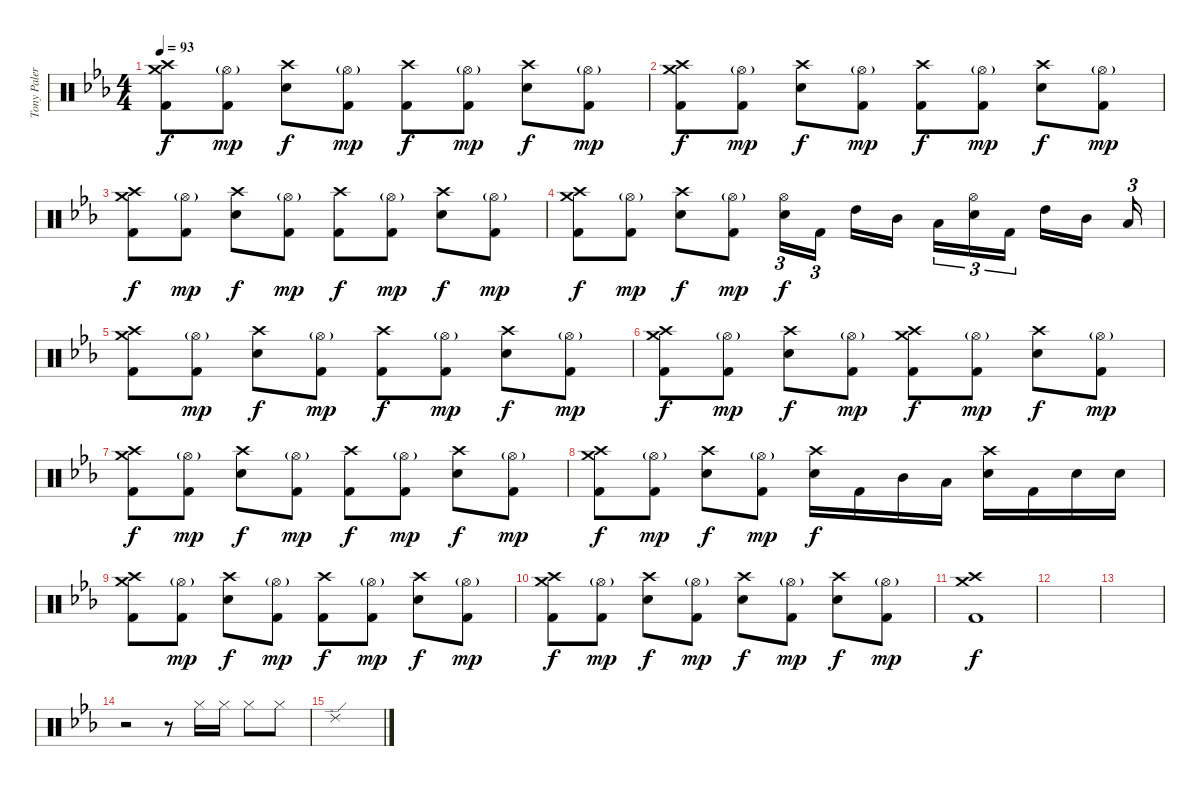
\track ("Tony Palermo" "Tony Paler") {instrument percussion}
\staff {score}
\articulation defaults
\ts (4 4)
\tempo 93
\clef neutral
\ks cminor
("Crash high (hit)" "Crash medium (hit)" "Kick (hit) 2").8{dy f} ("Hi-Hat (open)"{g} "Kick (hit) 2").8{dy mp} ("Crash high (hit)" "Electric Snare (hit)").8{dy f} ("Hi-Hat (open)"{g} "Kick (hit) 2").8{dy mp} ("Crash high (hit)" "Kick (hit) 2").8{dy f} ("Hi-Hat (open)"{g} "Kick (hit) 2").8{dy mp} ("Crash high (hit)" "Electric Snare (hit)").8{dy f} ("Hi-Hat (open)"{g} "Kick (hit) 2").8{dy mp} |
("Crash high (hit)" "Crash medium (hit)" "Kick (hit) 2").8{dy f} ("Hi-Hat (open)"{g} "Kick (hit) 2").8{dy mp} ("Crash high (hit)" "Electric Snare (hit)").8{dy f} ("Hi-Hat (open)"{g} "Kick (hit) 2").8{dy mp} ("Crash high (hit)" "Kick (hit) 2").8{dy f} ("Hi-Hat (open)"{g} "Kick (hit) 2").8{dy mp} ("Crash high (hit)" "Electric Snare (hit)").8{dy f} ("Hi-Hat (open)"{g} "Kick (hit) 2").8{dy mp} |
("Crash high (hit)" "Crash medium (hit)" "Kick (hit) 2").8{dy f} ("Hi-Hat (open)"{g} "Kick (hit) 2").8{dy mp} ("Crash high (hit)" "Electric Snare (hit)").8{dy f} ("Hi-Hat (open)"{g} "Kick (hit) 2").8{dy mp} ("Crash high (hit)" "Kick (hit) 2").8{dy f} ("Hi-Hat (open)"{g} "Kick (hit) 2").8{dy mp} ("Crash high (hit)" "Electric Snare (hit)").8{dy f} ("Hi-Hat (open)"{g} "Kick (hit) 2").8{dy mp} |
("Crash high (hit)" "Crash medium (hit)" "Kick (hit) 2").8{dy f} ("Hi-Hat (open)"{g} "Kick (hit) 2").8{dy mp} ("Crash high (hit)" "Electric Snare (hit)").8{dy f} ("Hi-Hat (open)"{g} "Kick (hit) 2").8{dy mp} ("Hi-Hat (open)" "Electric Snare (hit)").16{tu (3 2) dy f} "Kick (hit) 2".16{tu (3 2) beam splitsecondary} "High Tom (hit)".16 "Mid Tom (hit)".16{beam splitsecondary} "Low Tom (hit)".16{tu (3 2)} ("Hi-Hat (open)" "Electric Snare (hit)").16{tu (3 2)} "Kick (hit) 2".16{tu (3 2) beam splitsecondary} "High Tom (hit)".16 "Mid Tom (hit)".16{beam splitsecondary} "Low Tom (hit)".16{tu (3 2)} |
("Crash high (hit)" "Crash medium (hit)" "Kick (hit) 2").8 ("Hi-Hat (open)"{g} "Kick (hit) 2").8{dy mp} ("Crash high (hit)" "Electric Snare (hit)").8{dy f} ("Hi-Hat (open)"{g} "Kick (hit) 2").8{dy mp} ("Crash high (hit)" "Kick (hit) 2").8{dy f} ("Hi-Hat (open)"{g} "Kick (hit) 2").8{dy mp} ("Crash high (hit)" "Electric Snare (hit)").8{dy f} ("Hi-Hat (open)"{g} "Kick (hit) 2").8{dy mp} |
("Crash high (hit)" "Crash medium (hit)" "Kick (hit) 2").8{dy f} ("Hi-Hat (open)"{g} "Kick (hit) 2").8{dy mp} ("Crash high (hit)" "Electric Snare (hit)").8{dy f} ("Hi-Hat (open)"{g} "Kick (hit) 2").8{dy mp} ("Crash medium (hit)" "Crash high (hit)" "Kick (hit) 2").8{dy f} ("Hi-Hat (open)"{g} "Kick (hit) 2").8{dy mp} ("Crash high (hit)" "Electric Snare (hit)").8{dy f} ("Hi-Hat (open)"{g} "Kick (hit) 2").8{dy mp} |
("Crash high (hit)" "Crash medium (hit)" "Kick (hit) 2").8{dy f} ("Hi-Hat (open)"{g} "Kick (hit) 2").8{dy mp} ("Crash high (hit)" "Electric Snare (hit)").8{dy f} ("Hi-Hat (open)"{g} "Kick (hit) 2").8{dy mp} ("Crash high (hit)" "Kick (hit) 2").8{dy f} ("Hi-Hat (open)"{g} "Kick (hit) 2").8{dy mp} ("Crash high (hit)" "Electric Snare (hit)").8{dy f} ("Hi-Hat (open)"{g} "Kick (hit) 2").8{dy mp} |
("Crash high (hit)" "Crash medium (hit)" "Kick (hit) 2").8{dy f} ("Hi-Hat (open)"{g} "Kick (hit) 2").8{dy mp} ("Crash high (hit)" "Electric Snare (hit)").8{dy f} ("Hi-Hat (open)"{g} "Kick (hit) 2").8{dy mp} ("Crash high (hit)" "Electric Snare (hit)").16{dy f} "Kick (hit) 2".16 "Mid Tom (hit)".16 "Low Tom (hit)".16 ("Crash high (hit)" "Electric Snare (hit)").16 "Kick (hit) 2".16 "Electric Snare (hit)".16 "Electric Snare (hit)".16 |
("Crash high (hit)" "Crash medium (hit)" "Kick (hit) 2").8 ("Hi-Hat (open)"{g} "Kick (hit) 2").8{dy mp} ("Crash high (hit)" "Electric Snare (hit)").8{dy f} ("Hi-Hat (open)"{g} "Kick (hit) 2").8{dy mp} ("Crash high (hit)" "Kick (hit) 2").8{dy f} ("Hi-Hat (open)"{g} "Kick (hit) 2").8{dy mp} ("Crash high (hit)" "Electric Snare (hit)").8{dy f} ("Hi-Hat (open)"{g} "Kick (hit) 2").8{dy mp} |
("Crash high (hit)" "Crash medium (hit)" "Kick (hit) 2").8{dy f} ("Hi-Hat (open)"{g} "Kick (hit) 2").8{dy mp} ("Crash high (hit)" "Electric Snare (hit)").8{dy f} ("Hi-Hat (open)"{g} "Kick (hit) 2").8{dy mp} ("Crash high (hit)" "Electric Snare (hit)").8{dy f} ("Hi-Hat (open)"{g} "Kick (hit) 2").8{dy mp} ("Crash high (hit)" "Electric Snare (hit)").8{dy f} ("Hi-Hat (open)"{g} "Kick (hit) 2").8{dy mp} |
("Crash high (hit)" "Crash medium (hit)" "Kick (hit) 2").1{dy f} |
|
|
r.2 r.8 "Hi-Hat (closed)".16 "Hi-Hat (closed)".16 "Hi-Hat (closed)".8 "Hi-Hat (closed)".8 |
"Ride (edge) 2".1
